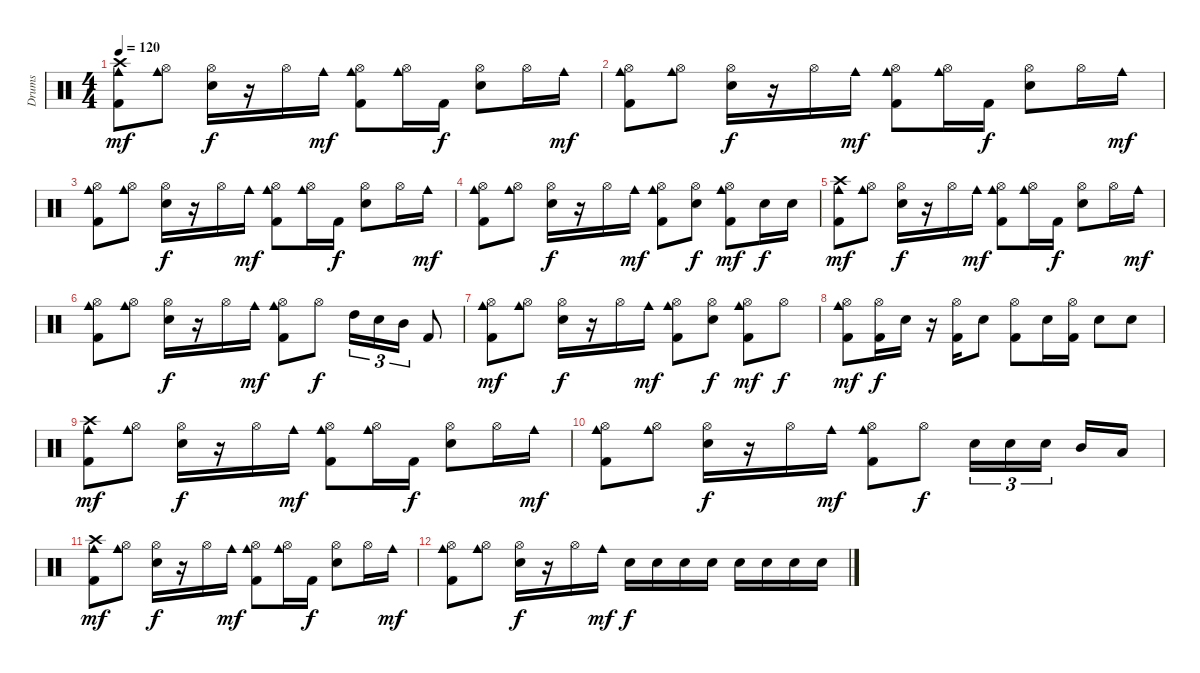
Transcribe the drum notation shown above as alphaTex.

\track ("Drums" "Drums") {instrument percussion}
\staff {score}
\articulation defaults
\ts (4 4)
\tempo 120
\clef neutral
\ks c
("Kick (hit) 2" "Crash high (hit)" "Cowbell medium (hit)").8{dy mf} ("Hi-Hat (open)" "Cowbell medium (hit)").8 ("Snare (hit) 2" "Hi-Hat (open)").16{dy f} r.16 "Hi-Hat (open)".16 "Cowbell medium (hit)".16{dy mf} ("Kick (hit) 2" "Hi-Hat (open)" "Cowbell medium (hit)").8 ("Hi-Hat (open)" "Cowbell medium (hit)").16 "Kick (hit) 2".16{dy f} ("Snare (hit) 2" "Hi-Hat (open)").8 "Hi-Hat (open)".16 "Cowbell medium (hit)".16{dy mf} |
("Kick (hit) 2" "Hi-Hat (open)" "Cowbell medium (hit)").8 ("Hi-Hat (open)" "Cowbell medium (hit)").8 ("Snare (hit) 2" "Hi-Hat (open)").16{dy f} r.16 "Hi-Hat (open)".16 "Cowbell medium (hit)".16{dy mf} ("Kick (hit) 2" "Hi-Hat (open)" "Cowbell medium (hit)").8 ("Hi-Hat (open)" "Cowbell medium (hit)").16 "Kick (hit) 2".16{dy f} ("Snare (hit) 2" "Hi-Hat (open)").8 "Hi-Hat (open)".16 "Cowbell medium (hit)".16{dy mf} |
("Kick (hit) 2" "Hi-Hat (open)" "Cowbell medium (hit)").8 ("Hi-Hat (open)" "Cowbell medium (hit)").8 ("Snare (hit) 2" "Hi-Hat (open)").16{dy f} r.16 "Hi-Hat (open)".16 "Cowbell medium (hit)".16{dy mf} ("Kick (hit) 2" "Hi-Hat (open)" "Cowbell medium (hit)").8 ("Hi-Hat (open)" "Cowbell medium (hit)").16 "Kick (hit) 2".16{dy f} ("Snare (hit) 2" "Hi-Hat (open)").8 "Hi-Hat (open)".16 "Cowbell medium (hit)".16{dy mf} |
("Kick (hit) 2" "Hi-Hat (open)" "Cowbell medium (hit)").8 ("Hi-Hat (open)" "Cowbell medium (hit)").8 ("Snare (hit) 2" "Hi-Hat (open)").16{dy f} r.16 "Hi-Hat (open)".16 "Cowbell medium (hit)".16{dy mf} ("Kick (hit) 2" "Hi-Hat (open)" "Cowbell medium (hit)").8 ("Snare (hit) 2" "Hi-Hat (open)").8{dy f} ("Kick (hit) 2" "Hi-Hat (open)" "Cowbell medium (hit)").8{dy mf} "Snare (hit) 2".16{dy f} "Snare (hit) 2".16 |
("Kick (hit) 2" "Crash high (hit)" "Cowbell medium (hit)").8{dy mf} ("Hi-Hat (open)" "Cowbell medium (hit)").8 ("Snare (hit) 2" "Hi-Hat (open)").16{dy f} r.16 "Hi-Hat (open)".16 "Cowbell medium (hit)".16{dy mf} ("Kick (hit) 2" "Hi-Hat (open)" "Cowbell medium (hit)").8 ("Hi-Hat (open)" "Cowbell medium (hit)").16 "Kick (hit) 2".16{dy f} ("Snare (hit) 2" "Hi-Hat (open)").8 "Hi-Hat (open)".16 "Cowbell medium (hit)".16{dy mf} |
("Kick (hit) 2" "Hi-Hat (open)" "Cowbell medium (hit)").8 ("Hi-Hat (open)" "Cowbell medium (hit)").8 ("Snare (hit) 2" "Hi-Hat (open)").16{dy f} r.16 "Hi-Hat (open)".16 "Cowbell medium (hit)".16{dy mf} ("Kick (hit) 2" "Hi-Hat (open)" "Cowbell medium (hit)").8 "Hi-Hat (open)".8{dy f} "High Tom (hit)".16{tu (3 2)} "Snare (hit) 2".16{tu (3 2)} "Mid Tom (hit)".16{tu (3 2)} "Kick (hit) 2".8 |
("Kick (hit) 2" "Hi-Hat (open)" "Cowbell medium (hit)").8{dy mf} ("Hi-Hat (open)" "Cowbell medium (hit)").8 ("Snare (hit) 2" "Hi-Hat (open)").16{dy f} r.16 "Hi-Hat (open)".16 "Cowbell medium (hit)".16{dy mf} ("Kick (hit) 2" "Hi-Hat (open)" "Cowbell medium (hit)").8 ("Snare (hit) 2" "Hi-Hat (open)").8{dy f} ("Kick (hit) 2" "Hi-Hat (open)" "Cowbell medium (hit)").8{dy mf} "Hi-Hat (open)".8{dy f} |
("Kick (hit) 2" "Hi-Hat (open)" "Cowbell medium (hit)").8{dy mf} ("Kick (hit) 2" "Hi-Hat (open)").16{dy f} "Snare (hit) 2".16 r.16 ("Kick (hit) 2" "Hi-Hat (open)").16 "Snare (hit) 2".8 ("Kick (hit) 2" "Hi-Hat (open)").8 "Snare (hit) 2".16 ("Kick (hit) 2" "Hi-Hat (open)").16 "Snare (hit) 2".8 "Snare (hit) 2".8 |
("Kick (hit) 2" "Crash high (hit)" "Cowbell medium (hit)").8{dy mf} ("Hi-Hat (open)" "Cowbell medium (hit)").8 ("Snare (hit) 2" "Hi-Hat (open)").16{dy f} r.16 "Hi-Hat (open)".16 "Cowbell medium (hit)".16{dy mf} ("Kick (hit) 2" "Hi-Hat (open)" "Cowbell medium (hit)").8 ("Hi-Hat (open)" "Cowbell medium (hit)").16 "Kick (hit) 2".16{dy f} ("Snare (hit) 2" "Hi-Hat (open)").8 "Hi-Hat (open)".16 "Cowbell medium (hit)".16{dy mf} |
("Kick (hit) 2" "Hi-Hat (open)" "Cowbell medium (hit)").8 ("Hi-Hat (open)" "Cowbell medium (hit)").8 ("Snare (hit) 2" "Hi-Hat (open)").16{dy f} r.16 "Hi-Hat (open)".16 "Cowbell medium (hit)".16{dy mf} ("Kick (hit) 2" "Hi-Hat (open)" "Cowbell medium (hit)").8 "Hi-Hat (open)".8{dy f} "Snare (hit) 2".16{tu (3 2)} "Snare (hit) 2".16{tu (3 2)} "Snare (hit) 2".16{tu (3 2)} "Mid Tom (hit)".16 "Low Tom (hit)".16 |
("Kick (hit) 2" "Crash high (hit)" "Cowbell medium (hit)").8{dy mf} ("Hi-Hat (open)" "Cowbell medium (hit)").8 ("Snare (hit) 2" "Hi-Hat (open)").16{dy f} r.16 "Hi-Hat (open)".16 "Cowbell medium (hit)".16{dy mf} ("Kick (hit) 2" "Hi-Hat (open)" "Cowbell medium (hit)").8 ("Hi-Hat (open)" "Cowbell medium (hit)").16 "Kick (hit) 2".16{dy f} ("Snare (hit) 2" "Hi-Hat (open)").8 "Hi-Hat (open)".16 "Cowbell medium (hit)".16{dy mf} |
("Kick (hit) 2" "Hi-Hat (open)" "Cowbell medium (hit)").8 ("Hi-Hat (open)" "Cowbell medium (hit)").8 ("Snare (hit) 2" "Hi-Hat (open)").16{dy f} r.16 "Hi-Hat (open)".16 "Cowbell medium (hit)".16{dy mf} "Snare (hit) 2".16{dy f} "Snare (hit) 2".16 "Snare (hit) 2".16 "Snare (hit) 2".16 "Snare (hit) 2".16 "Snare (hit) 2".16 "Snare (hit) 2".16 "Snare (hit) 2".16
